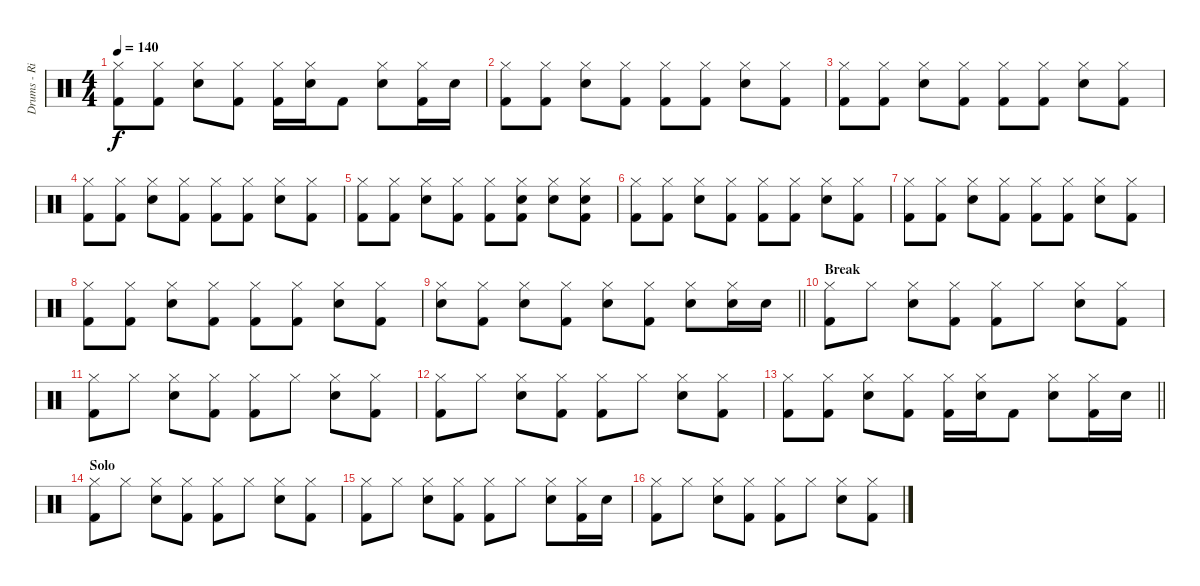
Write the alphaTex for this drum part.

\track ("Drums - Richard Thomas" "Drums - Ri") {instrument percussion}
\staff {score}
\articulation defaults
\ts (4 4)
\tempo 140
\clef neutral
\ks c
("Kick (hit) 2" "Hi-Hat (closed)").8{dy f} ("Kick (hit) 2" "Hi-Hat (closed)").8 ("Electric Snare (hit)" "Hi-Hat (closed)").8 ("Kick (hit) 2" "Hi-Hat (closed)").8 ("Kick (hit) 2" "Hi-Hat (closed)").16 ("Electric Snare (hit)" "Hi-Hat (closed)").16 "Kick (hit) 2".8 ("Electric Snare (hit)" "Hi-Hat (closed)").8 ("Kick (hit) 2" "Hi-Hat (closed)").16 "Electric Snare (hit)".16 |
("Kick (hit) 2" "Hi-Hat (closed)").8 ("Kick (hit) 2" "Hi-Hat (closed)").8 ("Electric Snare (hit)" "Hi-Hat (closed)").8 ("Kick (hit) 2" "Hi-Hat (closed)").8 ("Kick (hit) 2" "Hi-Hat (closed)").8 ("Kick (hit) 2" "Hi-Hat (closed)").8 ("Electric Snare (hit)" "Hi-Hat (closed)").8 ("Kick (hit) 2" "Hi-Hat (closed)").8 |
("Kick (hit) 2" "Hi-Hat (closed)").8 ("Kick (hit) 2" "Hi-Hat (closed)").8 ("Electric Snare (hit)" "Hi-Hat (closed)").8 ("Kick (hit) 2" "Hi-Hat (closed)").8 ("Kick (hit) 2" "Hi-Hat (closed)").8 ("Kick (hit) 2" "Hi-Hat (closed)").8 ("Electric Snare (hit)" "Hi-Hat (closed)").8 ("Kick (hit) 2" "Hi-Hat (closed)").8 |
("Kick (hit) 2" "Hi-Hat (closed)").8 ("Kick (hit) 2" "Hi-Hat (closed)").8 ("Electric Snare (hit)" "Hi-Hat (closed)").8 ("Kick (hit) 2" "Hi-Hat (closed)").8 ("Kick (hit) 2" "Hi-Hat (closed)").8 ("Kick (hit) 2" "Hi-Hat (closed)").8 ("Electric Snare (hit)" "Hi-Hat (closed)").8 ("Kick (hit) 2" "Hi-Hat (closed)").8 |
("Kick (hit) 2" "Hi-Hat (closed)").8 ("Kick (hit) 2" "Hi-Hat (closed)").8 ("Electric Snare (hit)" "Hi-Hat (closed)").8 ("Kick (hit) 2" "Hi-Hat (closed)").8 ("Kick (hit) 2" "Hi-Hat (closed)").8 ("Electric Snare (hit)" "Kick (hit) 2" "Hi-Hat (closed)").8 ("Electric Snare (hit)" "Hi-Hat (closed)").8 ("Electric Snare (hit)" "Kick (hit) 2" "Hi-Hat (closed)").8 |
("Kick (hit) 2" "Hi-Hat (closed)").8 ("Kick (hit) 2" "Hi-Hat (closed)").8 ("Electric Snare (hit)" "Hi-Hat (closed)").8 ("Kick (hit) 2" "Hi-Hat (closed)").8 ("Kick (hit) 2" "Hi-Hat (closed)").8 ("Kick (hit) 2" "Hi-Hat (closed)").8 ("Electric Snare (hit)" "Hi-Hat (closed)").8 ("Kick (hit) 2" "Hi-Hat (closed)").8 |
("Kick (hit) 2" "Hi-Hat (closed)").8 ("Kick (hit) 2" "Hi-Hat (closed)").8 ("Electric Snare (hit)" "Hi-Hat (closed)").8 ("Kick (hit) 2" "Hi-Hat (closed)").8 ("Kick (hit) 2" "Hi-Hat (closed)").8 ("Kick (hit) 2" "Hi-Hat (closed)").8 ("Electric Snare (hit)" "Hi-Hat (closed)").8 ("Kick (hit) 2" "Hi-Hat (closed)").8 |
("Kick (hit) 2" "Hi-Hat (closed)").8 ("Kick (hit) 2" "Hi-Hat (closed)").8 ("Electric Snare (hit)" "Hi-Hat (closed)").8 ("Kick (hit) 2" "Hi-Hat (closed)").8 ("Kick (hit) 2" "Hi-Hat (closed)").8 ("Kick (hit) 2" "Hi-Hat (closed)").8 ("Electric Snare (hit)" "Hi-Hat (closed)").8 ("Kick (hit) 2" "Hi-Hat (closed)").8 |
\barLineRight lightlight
("Electric Snare (hit)" "Hi-Hat (closed)").8 ("Kick (hit) 2" "Hi-Hat (closed)").8 ("Electric Snare (hit)" "Hi-Hat (closed)").8 ("Kick (hit) 2" "Hi-Hat (closed)").8 ("Electric Snare (hit)" "Hi-Hat (closed)").8 ("Kick (hit) 2" "Hi-Hat (closed)").8 ("Electric Snare (hit)" "Hi-Hat (closed)").8 ("Electric Snare (hit)" "Hi-Hat (closed)").16 "Electric Snare (hit)".16 |
\section ("" "Break")
("Kick (hit) 2" "Hi-Hat (closed)").8 "Hi-Hat (closed)".8 ("Electric Snare (hit)" "Hi-Hat (closed)").8 ("Kick (hit) 2" "Hi-Hat (closed)").8 ("Kick (hit) 2" "Hi-Hat (closed)").8 "Hi-Hat (closed)".8 ("Electric Snare (hit)" "Hi-Hat (closed)").8 ("Kick (hit) 2" "Hi-Hat (closed)").8 |
("Kick (hit) 2" "Hi-Hat (closed)").8 "Hi-Hat (closed)".8 ("Electric Snare (hit)" "Hi-Hat (closed)").8 ("Kick (hit) 2" "Hi-Hat (closed)").8 ("Kick (hit) 2" "Hi-Hat (closed)").8 "Hi-Hat (closed)".8 ("Electric Snare (hit)" "Hi-Hat (closed)").8 ("Kick (hit) 2" "Hi-Hat (closed)").8 |
("Kick (hit) 2" "Hi-Hat (closed)").8 "Hi-Hat (closed)".8 ("Electric Snare (hit)" "Hi-Hat (closed)").8 ("Kick (hit) 2" "Hi-Hat (closed)").8 ("Kick (hit) 2" "Hi-Hat (closed)").8 "Hi-Hat (closed)".8 ("Electric Snare (hit)" "Hi-Hat (closed)").8 ("Kick (hit) 2" "Hi-Hat (closed)").8 |
\barLineRight lightlight
("Kick (hit) 2" "Hi-Hat (closed)").8 ("Kick (hit) 2" "Hi-Hat (closed)").8 ("Electric Snare (hit)" "Hi-Hat (closed)").8 ("Kick (hit) 2" "Hi-Hat (closed)").8 ("Kick (hit) 2" "Hi-Hat (closed)").16 ("Electric Snare (hit)" "Hi-Hat (closed)").16 "Kick (hit) 2".8 ("Electric Snare (hit)" "Hi-Hat (closed)").8 ("Kick (hit) 2" "Hi-Hat (closed)").16 "Electric Snare (hit)".16 |
\section ("" "Solo")
("Kick (hit) 2" "Hi-Hat (closed)").8 "Hi-Hat (closed)".8 ("Electric Snare (hit)" "Hi-Hat (closed)").8 ("Kick (hit) 2" "Hi-Hat (closed)").8 ("Kick (hit) 2" "Hi-Hat (closed)").8 "Hi-Hat (closed)".8 ("Electric Snare (hit)" "Hi-Hat (closed)").8 ("Kick (hit) 2" "Hi-Hat (closed)").8 |
("Kick (hit) 2" "Hi-Hat (closed)").8 "Hi-Hat (closed)".8 ("Electric Snare (hit)" "Hi-Hat (closed)").8 ("Kick (hit) 2" "Hi-Hat (closed)").8 ("Kick (hit) 2" "Hi-Hat (closed)").8 "Hi-Hat (closed)".8 ("Electric Snare (hit)" "Hi-Hat (closed)").8 ("Kick (hit) 2" "Hi-Hat (closed)").16 "Electric Snare (hit)".16 |
("Kick (hit) 2" "Hi-Hat (closed)").8 "Hi-Hat (closed)".8 ("Electric Snare (hit)" "Hi-Hat (closed)").8 ("Kick (hit) 2" "Hi-Hat (closed)").8 ("Kick (hit) 2" "Hi-Hat (closed)").8 "Hi-Hat (closed)".8 ("Electric Snare (hit)" "Hi-Hat (closed)").8 ("Kick (hit) 2" "Hi-Hat (closed)").8
